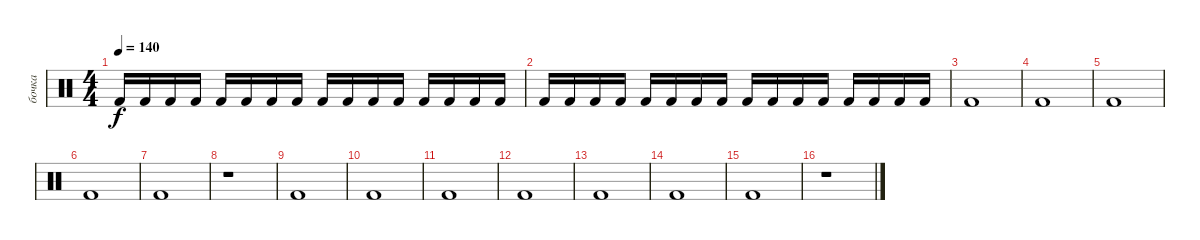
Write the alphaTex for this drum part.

\track ("бочка" "бочка") {mute instrument percussion}
\staff {score}
\articulation defaults
\ts (4 4)
\tempo 140
\clef neutral
\ks c "Kick (hit) 2".16{dy f} "Kick (hit) 2".16 "Kick (hit) 2".16 "Kick (hit) 2".16 "Kick (hit) 2".16 "Kick (hit) 2".16 "Kick (hit) 2".16 "Kick (hit) 2".16 "Kick (hit) 2".16 "Kick (hit) 2".16 "Kick (hit) 2".16 "Kick (hit) 2".16 "Kick (hit) 2".16 "Kick (hit) 2".16 "Kick (hit) 2".16 "Kick (hit) 2".16
|
"Kick (hit) 2".16 "Kick (hit) 2".16 "Kick (hit) 2".16 "Kick (hit) 2".16 "Kick (hit) 2".16 "Kick (hit) 2".16 "Kick (hit) 2".16 "Kick (hit) 2".16 "Kick (hit) 2".16 "Kick (hit) 2".16 "Kick (hit) 2".16 "Kick (hit) 2".16 "Kick (hit) 2".16 "Kick (hit) 2".16 "Kick (hit) 2".16 "Kick (hit) 2".16 |
"Kick (hit) 2".1 |
"Kick (hit) 2".1 |
"Kick (hit) 2".1 |
"Kick (hit) 2".1 |
"Kick (hit) 2".1 |
r.1 |
"Kick (hit) 2".1 |
"Kick (hit) 2".1 |
"Kick (hit) 2".1 |
"Kick (hit) 2".1 |
"Kick (hit) 2".1 |
"Kick (hit) 2".1 |
"Kick (hit) 2".1 |
r.1
